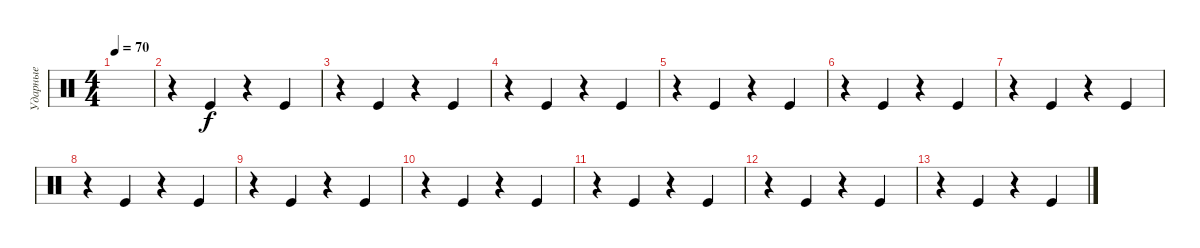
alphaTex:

\track ("Ударные" "Ударные") {instrument percussion}
\staff {score}
\articulation defaults
\ts (4 4)
\tempo 70
\clef neutral
\ks c
|
r.4 "Kick (hit)".4 r.4 "Kick (hit)".4 |
r.4 "Kick (hit)".4 r.4 "Kick (hit)".4 |
r.4 "Kick (hit)".4 r.4 "Kick (hit)".4 |
r.4 "Kick (hit)".4 r.4 "Kick (hit)".4 |
r.4 "Kick (hit)".4 r.4 "Kick (hit)".4 |
r.4 "Kick (hit)".4 r.4 "Kick (hit)".4 |
r.4 "Kick (hit)".4 r.4 "Kick (hit)".4 |
r.4 "Kick (hit)".4 r.4 "Kick (hit)".4 |
r.4 "Kick (hit)".4 r.4 "Kick (hit)".4 |
r.4 "Kick (hit)".4 r.4 "Kick (hit)".4 |
r.4 "Kick (hit)".4 r.4 "Kick (hit)".4 |
r.4 "Kick (hit)".4 r.4 "Kick (hit)".4
